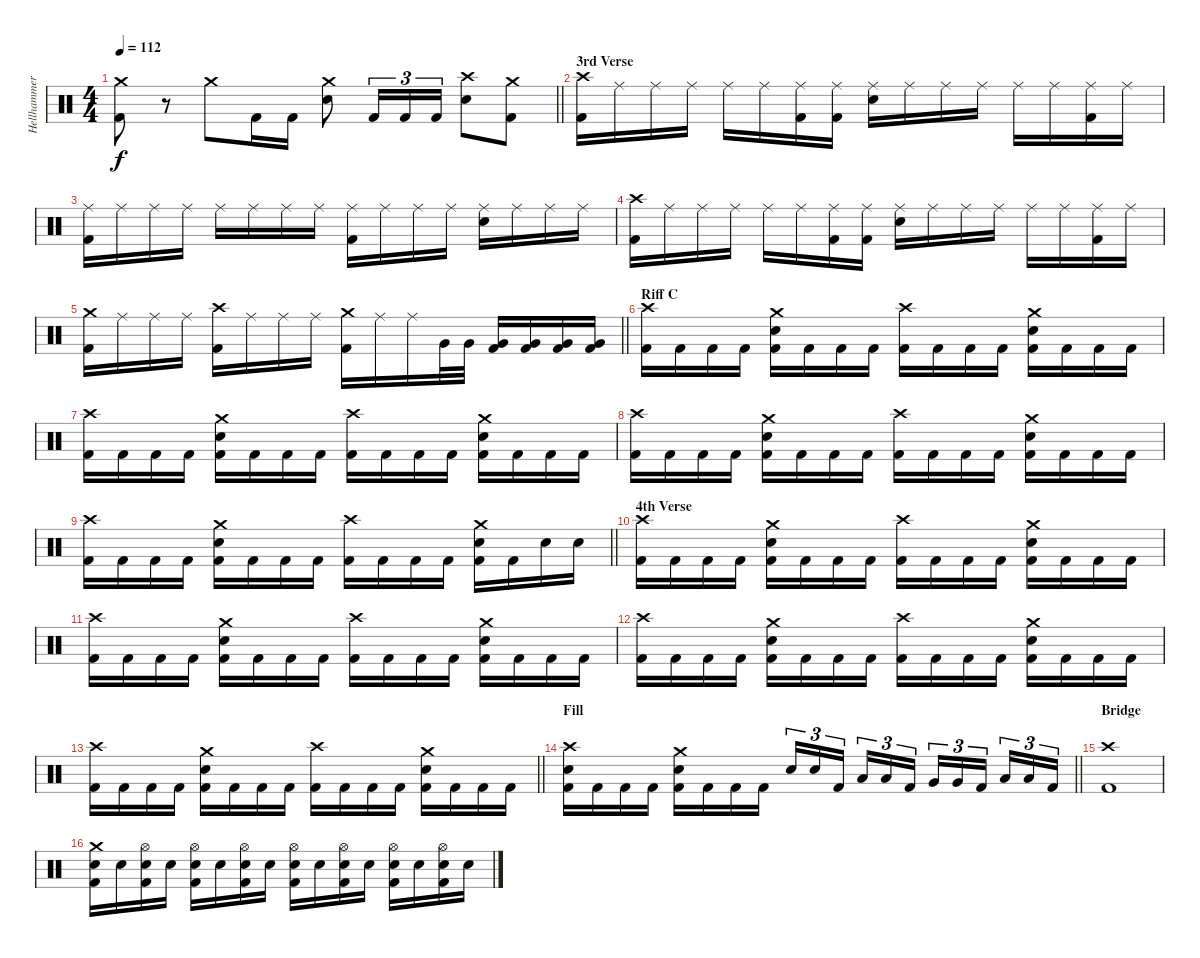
\track ("Hellhammer" "Hellhammer") {instrument percussion}
\staff {score}
\articulation defaults
\ts (4 4)
\tempo 112
\clef neutral
\barLineRight lightlight
\ks c
("Crash medium (hit)" "Kick (hit) 2").8{dy f} r.8 "Crash medium (hit)".8 "Kick (hit) 2".16 "Kick (hit) 2".16 ("Crash medium (hit)" "Snare (hit) 2").8 "Kick (hit) 2".16{tu (3 2)} "Kick (hit) 2".16{tu (3 2)} "Kick (hit) 2".16{tu (3 2)} ("Crash high (hit)" "Snare (hit) 2").8 ("Crash medium (hit)" "Kick (hit) 2").8 |
\section ("" "3rd Verse")
("Crash high (hit)" "Kick (hit) 2").16 "Ride (middle)".16 "Ride (middle)".16 "Ride (middle)".16 "Ride (middle)".16 "Ride (middle)".16 ("Ride (middle)" "Kick (hit) 2").16 ("Ride (middle)" "Kick (hit) 2").16 ("Ride (middle)" "Snare (hit) 2").16 "Ride (middle)".16 "Ride (middle)".16 "Ride (middle)".16 "Ride (middle)".16 "Ride (middle)".16 ("Ride (middle)" "Kick (hit) 2").16 "Ride (middle)".16 |
("Ride (middle)" "Kick (hit) 2").16 "Ride (middle)".16 "Ride (middle)".16 "Ride (middle)".16 "Ride (middle)".16 "Ride (middle)".16 "Ride (middle)".16 "Ride (middle)".16 ("Ride (middle)" "Kick (hit) 2").16 "Ride (middle)".16 "Ride (middle)".16 "Ride (middle)".16 ("Ride (middle)" "Snare (hit) 2").16 "Ride (middle)".16 "Ride (middle)".16 "Ride (middle)".16 |
("Crash high (hit)" "Kick (hit) 2").16 "Ride (middle)".16 "Ride (middle)".16 "Ride (middle)".16 "Ride (middle)".16 "Ride (middle)".16 ("Ride (middle)" "Kick (hit) 2").16 ("Ride (middle)" "Kick (hit) 2").16 ("Ride (middle)" "Snare (hit) 2").16 "Ride (middle)".16 "Ride (middle)".16 "Ride (middle)".16 "Ride (middle)".16 "Ride (middle)".16 ("Ride (middle)" "Kick (hit) 2").16 "Ride (middle)".16 |
\barLineRight lightlight
("Crash medium (hit)" "Kick (hit) 2").16 "Ride (middle)".16 "Ride (middle)".16 "Ride (middle)".16 ("Crash high (hit)" "Kick (hit) 2").16 "Ride (middle)".16 "Ride (middle)".16 "Ride (middle)".16 ("Crash medium (hit)" "Kick (hit) 2").16 "Ride (middle)".16 "Ride (middle)".16 "Very Low Tom (hit)".32 "Very Low Tom (hit)".32 ("Very Low Tom (hit)" "Kick (hit) 2").16 ("Very Low Tom (hit)" "Kick (hit) 2").16 ("Very Low Tom (hit)" "Kick (hit) 2").16 ("Very Low Tom (hit)" "Kick (hit) 2").16 |
\section ("" "Riff C")
("Crash high (hit)" "Kick (hit) 2").16 "Kick (hit) 2".16 "Kick (hit) 2".16 "Kick (hit) 2".16 ("Crash medium (hit)" "Snare (hit) 2" "Kick (hit) 2").16 "Kick (hit) 2".16 "Kick (hit) 2".16 "Kick (hit) 2".16 ("Crash high (hit)" "Kick (hit) 2").16 "Kick (hit) 2".16 "Kick (hit) 2".16 "Kick (hit) 2".16 ("Crash medium (hit)" "Snare (hit) 2" "Kick (hit) 2").16 "Kick (hit) 2".16 "Kick (hit) 2".16 "Kick (hit) 2".16 |
("Crash high (hit)" "Kick (hit) 2").16 "Kick (hit) 2".16 "Kick (hit) 2".16 "Kick (hit) 2".16 ("Crash medium (hit)" "Snare (hit) 2" "Kick (hit) 2").16 "Kick (hit) 2".16 "Kick (hit) 2".16 "Kick (hit) 2".16 ("Crash high (hit)" "Kick (hit) 2").16 "Kick (hit) 2".16 "Kick (hit) 2".16 "Kick (hit) 2".16 ("Crash medium (hit)" "Snare (hit) 2" "Kick (hit) 2").16 "Kick (hit) 2".16 "Kick (hit) 2".16 "Kick (hit) 2".16 |
("Crash high (hit)" "Kick (hit) 2").16 "Kick (hit) 2".16 "Kick (hit) 2".16 "Kick (hit) 2".16 ("Crash medium (hit)" "Snare (hit) 2" "Kick (hit) 2").16 "Kick (hit) 2".16 "Kick (hit) 2".16 "Kick (hit) 2".16 ("Crash high (hit)" "Kick (hit) 2").16 "Kick (hit) 2".16 "Kick (hit) 2".16 "Kick (hit) 2".16 ("Crash medium (hit)" "Snare (hit) 2" "Kick (hit) 2").16 "Kick (hit) 2".16 "Kick (hit) 2".16 "Kick (hit) 2".16 |
\barLineRight lightlight
("Crash high (hit)" "Kick (hit) 2").16 "Kick (hit) 2".16 "Kick (hit) 2".16 "Kick (hit) 2".16 ("Crash medium (hit)" "Snare (hit) 2" "Kick (hit) 2").16 "Kick (hit) 2".16 "Kick (hit) 2".16 "Kick (hit) 2".16 ("Crash high (hit)" "Kick (hit) 2").16 "Kick (hit) 2".16 "Kick (hit) 2".16 "Kick (hit) 2".16 ("Crash medium (hit)" "Snare (hit) 2" "Kick (hit) 2").16 "Kick (hit) 2".16 "Snare (hit) 2".16 "Snare (hit) 2".16 |
\section ("" "4th Verse")
("Crash high (hit)" "Kick (hit) 2").16 "Kick (hit) 2".16 "Kick (hit) 2".16 "Kick (hit) 2".16 ("Crash medium (hit)" "Snare (hit) 2" "Kick (hit) 2").16 "Kick (hit) 2".16 "Kick (hit) 2".16 "Kick (hit) 2".16 ("Crash high (hit)" "Kick (hit) 2").16 "Kick (hit) 2".16 "Kick (hit) 2".16 "Kick (hit) 2".16 ("Crash medium (hit)" "Snare (hit) 2" "Kick (hit) 2").16 "Kick (hit) 2".16 "Kick (hit) 2".16 "Kick (hit) 2".16 |
("Crash high (hit)" "Kick (hit) 2").16 "Kick (hit) 2".16 "Kick (hit) 2".16 "Kick (hit) 2".16 ("Crash medium (hit)" "Snare (hit) 2" "Kick (hit) 2").16 "Kick (hit) 2".16 "Kick (hit) 2".16 "Kick (hit) 2".16 ("Crash high (hit)" "Kick (hit) 2").16 "Kick (hit) 2".16 "Kick (hit) 2".16 "Kick (hit) 2".16 ("Crash medium (hit)" "Snare (hit) 2" "Kick (hit) 2").16 "Kick (hit) 2".16 "Kick (hit) 2".16 "Kick (hit) 2".16 |
("Crash high (hit)" "Kick (hit) 2").16 "Kick (hit) 2".16 "Kick (hit) 2".16 "Kick (hit) 2".16 ("Crash medium (hit)" "Snare (hit) 2" "Kick (hit) 2").16 "Kick (hit) 2".16 "Kick (hit) 2".16 "Kick (hit) 2".16 ("Crash high (hit)" "Kick (hit) 2").16 "Kick (hit) 2".16 "Kick (hit) 2".16 "Kick (hit) 2".16 ("Crash medium (hit)" "Snare (hit) 2" "Kick (hit) 2").16 "Kick (hit) 2".16 "Kick (hit) 2".16 "Kick (hit) 2".16 |
\barLineRight lightlight
("Crash high (hit)" "Kick (hit) 2").16 "Kick (hit) 2".16 "Kick (hit) 2".16 "Kick (hit) 2".16 ("Crash medium (hit)" "Snare (hit) 2" "Kick (hit) 2").16 "Kick (hit) 2".16 "Kick (hit) 2".16 "Kick (hit) 2".16 ("Crash high (hit)" "Kick (hit) 2").16 "Kick (hit) 2".16 "Kick (hit) 2".16 "Kick (hit) 2".16 ("Crash medium (hit)" "Snare (hit) 2" "Kick (hit) 2").16 "Kick (hit) 2".16 "Kick (hit) 2".16 "Kick (hit) 2".16 |
\section ("" "Fill")
\barLineRight lightlight
("Crash high (hit)" "Snare (hit) 2" "Kick (hit) 2").16 "Kick (hit) 2".16 "Kick (hit) 2".16 "Kick (hit) 2".16 ("Crash medium (hit)" "Snare (hit) 2" "Kick (hit) 2").16 "Kick (hit) 2".16 "Kick (hit) 2".16 "Kick (hit) 2".16 "Snare (hit) 2".16{tu (3 2)} "Snare (hit) 2".16{tu (3 2)} "Kick (hit) 2".16{tu (3 2) beam splitsecondary} "Low Tom (hit)".16{tu (3 2)} "Low Tom (hit)".16{tu (3 2)} "Kick (hit) 2".16{tu (3 2)} "Very Low Tom (hit)".16{tu (3 2)} "Very Low Tom (hit)".16{tu (3 2)} "Kick (hit) 2".16{tu (3 2) beam splitsecondary} "Low Floor Tom (hit)".16{tu (3 2)} "Low Floor Tom (hit)".16{tu (3 2)} "Kick (hit) 2".16{tu (3 2)} |
\section ("" "Bridge")
("Crash high (hit)" "Kick (hit) 2").1 |
("Crash medium (hit)" "Snare (hit) 2" "Kick (hit) 2").16 "Snare (hit) 2".16 ("Hi-Hat (open)" "Snare (hit) 2" "Kick (hit) 2").16 "Snare (hit) 2".16 ("Hi-Hat (open)" "Snare (hit) 2" "Kick (hit) 2").16 "Snare (hit) 2".16 ("Hi-Hat (open)" "Snare (hit) 2" "Kick (hit) 2").16 "Snare (hit) 2".16 ("Hi-Hat (open)" "Snare (hit) 2" "Kick (hit) 2").16 "Snare (hit) 2".16 ("Hi-Hat (open)" "Snare (hit) 2" "Kick (hit) 2").16 "Snare (hit) 2".16 ("Hi-Hat (open)" "Snare (hit) 2" "Kick (hit) 2").16 "Snare (hit) 2".16 ("Hi-Hat (open)" "Snare (hit) 2" "Kick (hit) 2").16 "Snare (hit) 2".16
